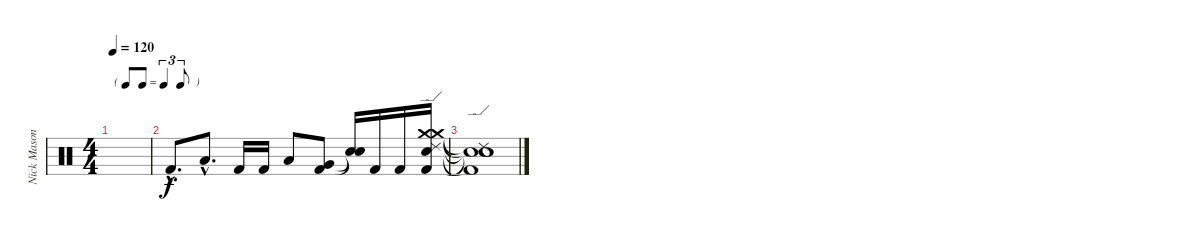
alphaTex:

\track ("Nick Mason" "Nick Mason") {instrument percussion}
\staff {score}
\articulation defaults
\ts (4 4)
\tf triplet8th
\tempo 120
\clef neutral
\ks c
|
"Kick (hit) 2"{hac}.8{d} "Low Tom (hit)"{hac}.8{d} "Kick (hit) 2".16 "Kick (hit) 2".16 "Low Tom (hit)".8 ("Very Low Tom (hit)" "Kick (hit) 2").8 ("Snare (hit)"{t} "Snare (hit)"{t}).16 "Kick (hit) 2".16 "Kick (hit) 2".16 ("Crash medium (hit)" "Crash medium (hit)" "Electric Snare (hit)" "Kick (hit) 2" "Ride (edge) 2").16 |
("Ride (edge) 2"{t} "Electric Snare (hit)"{t} "Kick (hit) 2"{t} "Snare (hit)"{t} "Snare (hit)"{t}).1
